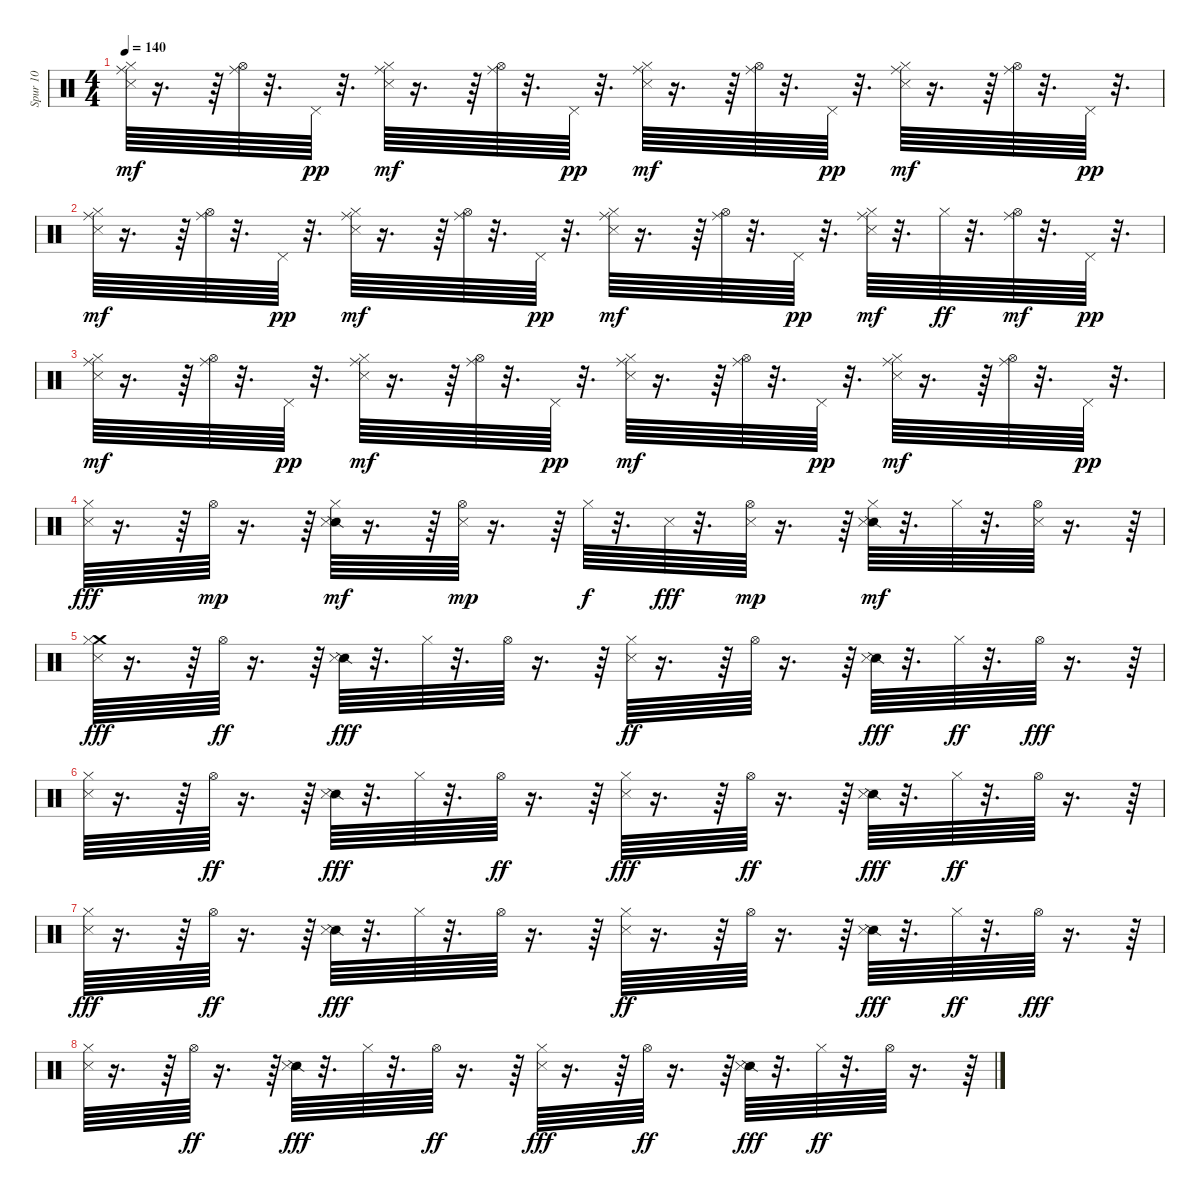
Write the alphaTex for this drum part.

\track ("Spur 10" "Spur 10") {instrument percussion}
\staff {score}
\articulation defaults
\ts (4 4)
\tempo 140
\clef neutral
\ks c
("Metronome (hit)" "Hi-Hat (closed)" "Ride (middle)").64{dy mf} r.16{d} r.64 ("Hi-Hat (open)" "Ride (middle)").64 r.32{d} "Pedal Hi-Hat (hit)".64{dy pp} r.32{d} ("Metronome (hit)" "Hi-Hat (closed)" "Ride (middle)").64{dy mf} r.16{d} r.64 ("Hi-Hat (open)" "Ride (middle)").64 r.32{d} "Pedal Hi-Hat (hit)".64{dy pp} r.32{d} ("Metronome (hit)" "Hi-Hat (closed)" "Ride (middle)").64{dy mf} r.16{d} r.64 ("Hi-Hat (open)" "Ride (middle)").64 r.32{d} "Pedal Hi-Hat (hit)".64{dy pp} r.32{d} ("Metronome (hit)" "Hi-Hat (closed)" "Ride (middle)").64{dy mf} r.16{d} r.64 ("Hi-Hat (open)" "Ride (middle)").64 r.32{d} "Pedal Hi-Hat (hit)".64{dy pp} r.32{d} |
("Metronome (hit)" "Hi-Hat (closed)" "Ride (middle)").64{dy mf} r.16{d} r.64 ("Hi-Hat (open)" "Ride (middle)").64 r.32{d} "Pedal Hi-Hat (hit)".64{dy pp} r.32{d} ("Metronome (hit)" "Hi-Hat (closed)" "Ride (middle)").64{dy mf} r.16{d} r.64 ("Hi-Hat (open)" "Ride (middle)").64 r.32{d} "Pedal Hi-Hat (hit)".64{dy pp} r.32{d} ("Metronome (hit)" "Hi-Hat (closed)" "Ride (middle)").64{dy mf} r.16{d} r.64 ("Hi-Hat (open)" "Ride (middle)").64 r.32{d} "Pedal Hi-Hat (hit)".64{dy pp} r.32{d} ("Metronome (hit)" "Hi-Hat (closed)" "Ride (middle)").64{dy mf} r.32{d} "Hi-Hat (closed)".64{dy ff} r.32{d} ("Hi-Hat (open)" "Ride (middle)").64{dy mf} r.32{d} "Pedal Hi-Hat (hit)".64{dy pp} r.32{d} |
("Metronome (hit)" "Hi-Hat (closed)" "Ride (middle)").64{dy mf} r.16{d} r.64 ("Hi-Hat (open)" "Ride (middle)").64 r.32{d} "Pedal Hi-Hat (hit)".64{dy pp} r.32{d} ("Metronome (hit)" "Hi-Hat (closed)" "Ride (middle)").64{dy mf} r.16{d} r.64 ("Hi-Hat (open)" "Ride (middle)").64 r.32{d} "Pedal Hi-Hat (hit)".64{dy pp} r.32{d} ("Metronome (hit)" "Hi-Hat (closed)" "Ride (middle)").64{dy mf} r.16{d} r.64 ("Hi-Hat (open)" "Ride (middle)").64 r.32{d} "Pedal Hi-Hat (hit)".64{dy pp} r.32{d} ("Metronome (hit)" "Hi-Hat (closed)" "Ride (middle)").64{dy mf} r.16{d} r.64 ("Hi-Hat (open)" "Ride (middle)").64 r.32{d} "Pedal Hi-Hat (hit)".64{dy pp} r.32{d} |
("Metronome (hit)" "Hi-Hat (closed)").64{dy fff} r.16{d} r.64 "Hi-Hat (open)".64{dy mp} r.16{d} r.64 ("Snare (side stick) 2" "Metronome (hit)" "Hi-Hat (closed)").64{dy mf} r.16{d} r.64 ("Metronome (hit)" "Hi-Hat (open)").64{dy mp} r.16{d} r.64 "Hi-Hat (closed)".64{dy f} r.32{d} "Metronome (hit)".64{dy fff} r.32{d} ("Metronome (hit)" "Hi-Hat (open)").64{dy mp} r.16{d} r.64 ("Snare (side stick) 2" "Metronome (hit)" "Hi-Hat (closed)").64{dy mf} r.32{d} "Hi-Hat (closed)".64 r.32{d} ("Metronome (hit)" "Hi-Hat (open)").64 r.16{d} r.64 |
("Crash medium (hit)" "Metronome (hit)" "Hi-Hat (closed)").64{dy fff} r.16{d} r.64 "Hi-Hat (open)".64{dy ff} r.16{d} r.64 ("Snare (side stick) 2" "Metronome (hit)").64{dy fff} r.32{d} "Hi-Hat (closed)".64 r.32{d} "Hi-Hat (open)".64 r.16{d} r.64 ("Metronome (hit)" "Hi-Hat (closed)").64{dy ff} r.16{d} r.64 "Hi-Hat (open)".64 r.16{d} r.64 ("Snare (side stick) 2" "Metronome (hit)").64{dy fff} r.32{d} "Hi-Hat (closed)".64{dy ff} r.32{d} "Hi-Hat (open)".64{dy fff} r.16{d} r.64 |
("Metronome (hit)" "Hi-Hat (closed)").64 r.16{d} r.64 "Hi-Hat (open)".64{dy ff} r.16{d} r.64 ("Snare (side stick) 2" "Metronome (hit)").64{dy fff} r.32{d} "Hi-Hat (closed)".64 r.32{d} "Hi-Hat (open)".64{dy ff} r.16{d} r.64 ("Metronome (hit)" "Hi-Hat (closed)").64{dy fff} r.16{d} r.64 "Hi-Hat (open)".64{dy ff} r.16{d} r.64 ("Snare (side stick) 2" "Metronome (hit)").64{dy fff} r.32{d} "Hi-Hat (closed)".64{dy ff} r.32{d} "Hi-Hat (open)".64 r.16{d} r.64 |
("Metronome (hit)" "Hi-Hat (closed)").64{dy fff} r.16{d} r.64 "Hi-Hat (open)".64{dy ff} r.16{d} r.64 ("Snare (side stick) 2" "Metronome (hit)").64{dy fff} r.32{d} "Hi-Hat (closed)".64 r.32{d} "Hi-Hat (open)".64 r.16{d} r.64 ("Metronome (hit)" "Hi-Hat (closed)").64{dy ff} r.16{d} r.64 "Hi-Hat (open)".64 r.16{d} r.64 ("Snare (side stick) 2" "Metronome (hit)").64{dy fff} r.32{d} "Hi-Hat (closed)".64{dy ff} r.32{d} "Hi-Hat (open)".64{dy fff} r.16{d} r.64 |
("Metronome (hit)" "Hi-Hat (closed)").64 r.16{d} r.64 "Hi-Hat (open)".64{dy ff} r.16{d} r.64 ("Snare (side stick) 2" "Metronome (hit)").64{dy fff} r.32{d} "Hi-Hat (closed)".64 r.32{d} "Hi-Hat (open)".64{dy ff} r.16{d} r.64 ("Metronome (hit)" "Hi-Hat (closed)").64{dy fff} r.16{d} r.64 "Hi-Hat (open)".64{dy ff} r.16{d} r.64 ("Snare (side stick) 2" "Metronome (hit)").64{dy fff} r.32{d} "Hi-Hat (closed)".64{dy ff} r.32{d} "Hi-Hat (open)".64 r.16{d} r.64
